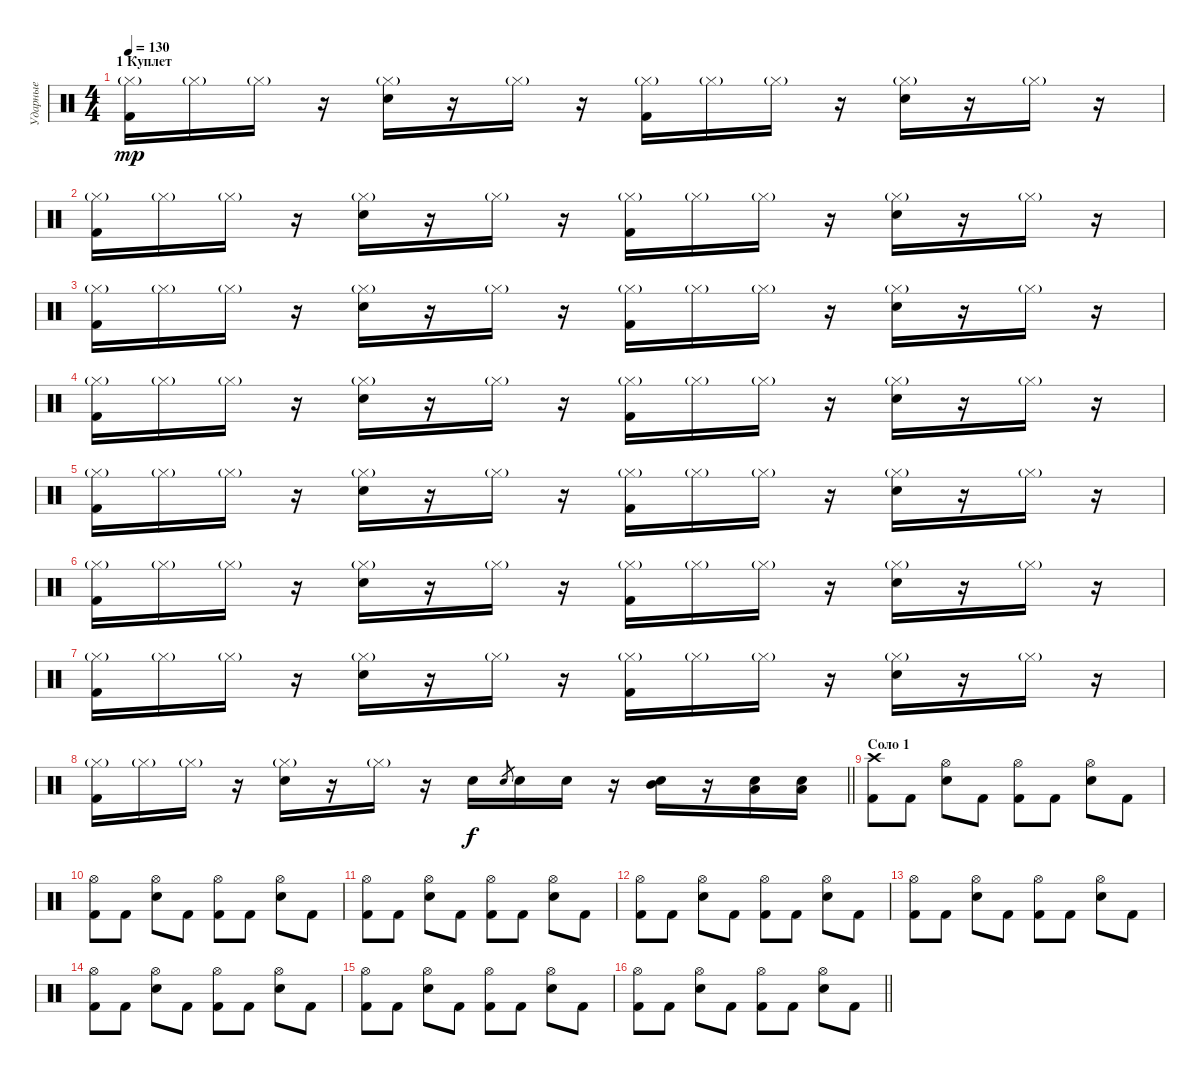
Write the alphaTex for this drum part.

\track ("Ударные" "Ударные") {instrument percussion}
\staff {score}
\articulation defaults
\ts (4 4)
\section ("" "1 Куплет")
\tempo 130
\clef neutral
\ks c
("Hi-Hat (closed)"{g} "Kick (hit) 2").16{dy mp} "Hi-Hat (closed)"{g}.16 "Hi-Hat (closed)"{g}.16 r.16 ("Hi-Hat (closed)"{g} "Snare (hit) 2").16 r.16 "Hi-Hat (closed)"{g}.16 r.16 ("Hi-Hat (closed)"{g} "Kick (hit) 2").16 "Hi-Hat (closed)"{g}.16 "Hi-Hat (closed)"{g}.16 r.16 ("Hi-Hat (closed)"{g} "Snare (hit) 2").16 r.16 "Hi-Hat (closed)"{g}.16 r.16 |
("Hi-Hat (closed)"{g} "Kick (hit) 2").16 "Hi-Hat (closed)"{g}.16 "Hi-Hat (closed)"{g}.16 r.16 ("Hi-Hat (closed)"{g} "Snare (hit) 2").16 r.16 "Hi-Hat (closed)"{g}.16 r.16 ("Hi-Hat (closed)"{g} "Kick (hit) 2").16 "Hi-Hat (closed)"{g}.16 "Hi-Hat (closed)"{g}.16 r.16 ("Hi-Hat (closed)"{g} "Snare (hit) 2").16 r.16 "Hi-Hat (closed)"{g}.16 r.16 |
("Hi-Hat (closed)"{g} "Kick (hit) 2").16 "Hi-Hat (closed)"{g}.16 "Hi-Hat (closed)"{g}.16 r.16 ("Hi-Hat (closed)"{g} "Snare (hit) 2").16 r.16 "Hi-Hat (closed)"{g}.16 r.16 ("Hi-Hat (closed)"{g} "Kick (hit) 2").16 "Hi-Hat (closed)"{g}.16 "Hi-Hat (closed)"{g}.16 r.16 ("Hi-Hat (closed)"{g} "Snare (hit) 2").16 r.16 "Hi-Hat (closed)"{g}.16 r.16 |
("Hi-Hat (closed)"{g} "Kick (hit) 2").16 "Hi-Hat (closed)"{g}.16 "Hi-Hat (closed)"{g}.16 r.16 ("Hi-Hat (closed)"{g} "Snare (hit) 2").16 r.16 "Hi-Hat (closed)"{g}.16 r.16 ("Hi-Hat (closed)"{g} "Kick (hit) 2").16 "Hi-Hat (closed)"{g}.16 "Hi-Hat (closed)"{g}.16 r.16 ("Hi-Hat (closed)"{g} "Snare (hit) 2").16 r.16 "Hi-Hat (closed)"{g}.16 r.16 |
("Hi-Hat (closed)"{g} "Kick (hit) 2").16 "Hi-Hat (closed)"{g}.16 "Hi-Hat (closed)"{g}.16 r.16 ("Hi-Hat (closed)"{g} "Snare (hit) 2").16 r.16 "Hi-Hat (closed)"{g}.16 r.16 ("Hi-Hat (closed)"{g} "Kick (hit) 2").16 "Hi-Hat (closed)"{g}.16 "Hi-Hat (closed)"{g}.16 r.16 ("Hi-Hat (closed)"{g} "Snare (hit) 2").16 r.16 "Hi-Hat (closed)"{g}.16 r.16 |
("Hi-Hat (closed)"{g} "Kick (hit) 2").16 "Hi-Hat (closed)"{g}.16 "Hi-Hat (closed)"{g}.16 r.16 ("Hi-Hat (closed)"{g} "Snare (hit) 2").16 r.16 "Hi-Hat (closed)"{g}.16 r.16 ("Hi-Hat (closed)"{g} "Kick (hit) 2").16 "Hi-Hat (closed)"{g}.16 "Hi-Hat (closed)"{g}.16 r.16 ("Hi-Hat (closed)"{g} "Snare (hit) 2").16 r.16 "Hi-Hat (closed)"{g}.16 r.16 |
("Hi-Hat (closed)"{g} "Kick (hit) 2").16 "Hi-Hat (closed)"{g}.16 "Hi-Hat (closed)"{g}.16 r.16 ("Hi-Hat (closed)"{g} "Snare (hit) 2").16 r.16 "Hi-Hat (closed)"{g}.16 r.16 ("Hi-Hat (closed)"{g} "Kick (hit) 2").16 "Hi-Hat (closed)"{g}.16 "Hi-Hat (closed)"{g}.16 r.16 ("Hi-Hat (closed)"{g} "Snare (hit) 2").16 r.16 "Hi-Hat (closed)"{g}.16 r.16 |
\barLineRight lightlight
("Hi-Hat (closed)"{g} "Kick (hit) 2").16 "Hi-Hat (closed)"{g}.16 "Hi-Hat (closed)"{g}.16 r.16 ("Hi-Hat (closed)"{g} "Snare (hit) 2").16 r.16 "Hi-Hat (closed)"{g}.16 r.16 "Snare (hit) 2".16{dy f} "Snare (hit) 2".8{gr} "Snare (hit) 2".16 "Snare (hit) 2".16 r.16 ("Mid Tom (hit)" "Snare (hit) 2").16 r.16 ("Low Tom (hit)" "Snare (hit) 2").16 ("Low Tom (hit)" "Snare (hit) 2").16 |
\section ("" "Соло 1")
("Crash high (hit)" "Kick (hit) 2").8 "Kick (hit) 2".8 ("Hi-Hat (open)" "Snare (hit) 2").8 "Kick (hit) 2".8 ("Hi-Hat (open)" "Kick (hit) 2").8 "Kick (hit) 2".8 ("Hi-Hat (open)" "Snare (hit) 2").8 "Kick (hit) 2".8 |
("Hi-Hat (open)" "Kick (hit) 2").8 "Kick (hit) 2".8 ("Hi-Hat (open)" "Snare (hit) 2").8 "Kick (hit) 2".8 ("Hi-Hat (open)" "Kick (hit) 2").8 "Kick (hit) 2".8 ("Hi-Hat (open)" "Snare (hit) 2").8 "Kick (hit) 2".8 |
("Hi-Hat (open)" "Kick (hit) 2").8 "Kick (hit) 2".8 ("Hi-Hat (open)" "Snare (hit) 2").8 "Kick (hit) 2".8 ("Hi-Hat (open)" "Kick (hit) 2").8 "Kick (hit) 2".8 ("Hi-Hat (open)" "Snare (hit) 2").8 "Kick (hit) 2".8 |
("Hi-Hat (open)" "Kick (hit) 2").8 "Kick (hit) 2".8 ("Hi-Hat (open)" "Snare (hit) 2").8 "Kick (hit) 2".8 ("Hi-Hat (open)" "Kick (hit) 2").8 "Kick (hit) 2".8 ("Hi-Hat (open)" "Snare (hit) 2").8 "Kick (hit) 2".8 |
("Hi-Hat (open)" "Kick (hit) 2").8 "Kick (hit) 2".8 ("Hi-Hat (open)" "Snare (hit) 2").8 "Kick (hit) 2".8 ("Hi-Hat (open)" "Kick (hit) 2").8 "Kick (hit) 2".8 ("Hi-Hat (open)" "Snare (hit) 2").8 "Kick (hit) 2".8 |
("Hi-Hat (open)" "Kick (hit) 2").8 "Kick (hit) 2".8 ("Hi-Hat (open)" "Snare (hit) 2").8 "Kick (hit) 2".8 ("Hi-Hat (open)" "Kick (hit) 2").8 "Kick (hit) 2".8 ("Hi-Hat (open)" "Snare (hit) 2").8 "Kick (hit) 2".8 |
("Hi-Hat (open)" "Kick (hit) 2").8 "Kick (hit) 2".8 ("Hi-Hat (open)" "Snare (hit) 2").8 "Kick (hit) 2".8 ("Hi-Hat (open)" "Kick (hit) 2").8 "Kick (hit) 2".8 ("Hi-Hat (open)" "Snare (hit) 2").8 "Kick (hit) 2".8 |
\barLineRight lightlight
("Hi-Hat (open)" "Kick (hit) 2").8 "Kick (hit) 2".8 ("Hi-Hat (open)" "Snare (hit) 2").8 "Kick (hit) 2".8 ("Hi-Hat (open)" "Kick (hit) 2").8 "Kick (hit) 2".8 ("Hi-Hat (open)" "Snare (hit) 2").8 "Kick (hit) 2".8
